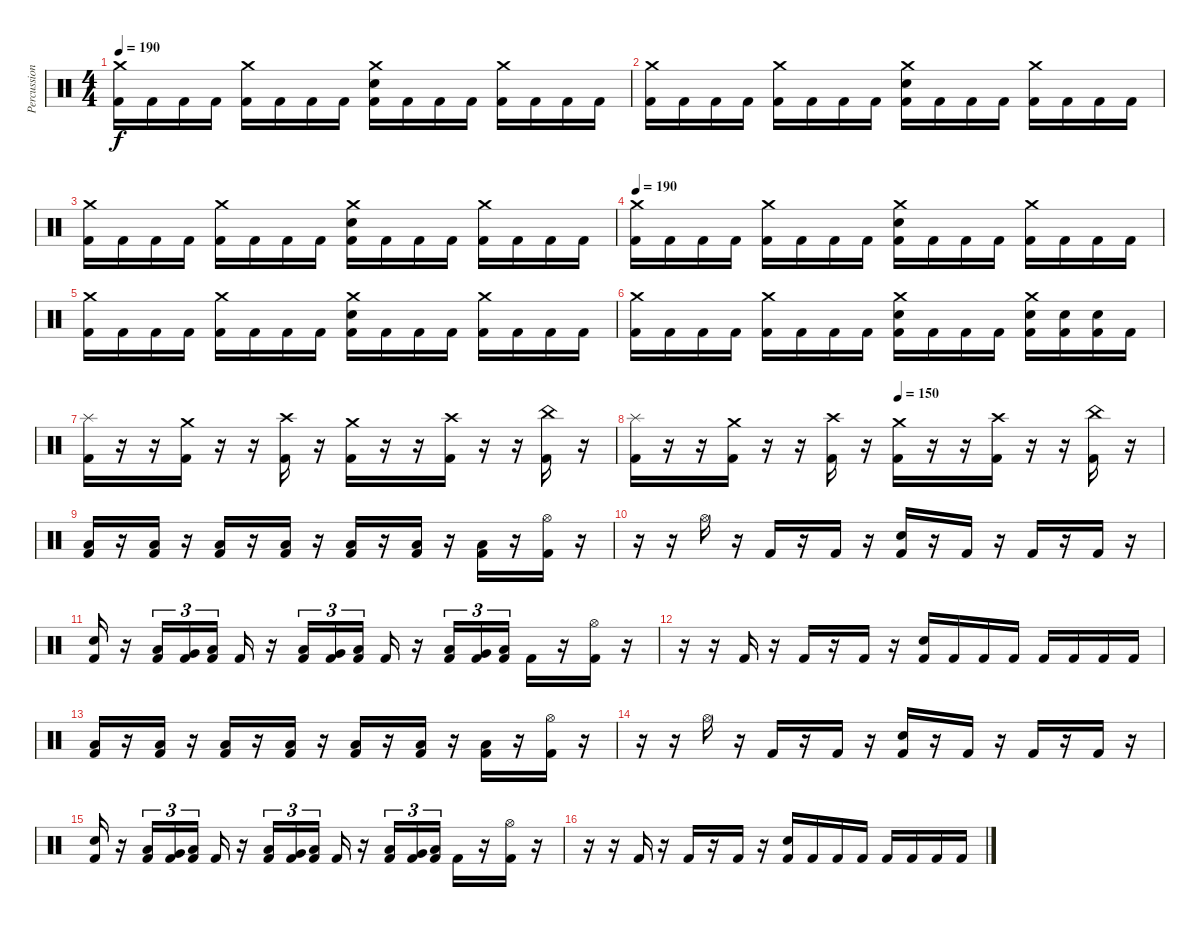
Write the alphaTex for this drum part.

\track ("Percussion" "Percussion") {instrument percussion}
\staff {score}
\articulation defaults
\ts (4 4)
\tempo 190
\clef neutral
\ks c
("Crash medium (hit)" "Kick (hit) 2").16{dy f} "Kick (hit) 2".16 "Kick (hit) 2".16 "Kick (hit) 2".16 ("Crash medium (hit)" "Kick (hit) 2").16 "Kick (hit) 2".16 "Kick (hit) 2".16 "Kick (hit) 2".16 ("Crash medium (hit)" "Electric Snare (hit)" "Kick (hit) 2").16 "Kick (hit) 2".16 "Kick (hit) 2".16 "Kick (hit) 2".16 ("Crash medium (hit)" "Kick (hit) 2").16 "Kick (hit) 2".16 "Kick (hit) 2".16 "Kick (hit) 2".16 |
("Crash medium (hit)" "Kick (hit) 2").16 "Kick (hit) 2".16 "Kick (hit) 2".16 "Kick (hit) 2".16 ("Crash medium (hit)" "Kick (hit) 2").16 "Kick (hit) 2".16 "Kick (hit) 2".16 "Kick (hit) 2".16 ("Crash medium (hit)" "Electric Snare (hit)" "Kick (hit) 2").16 "Kick (hit) 2".16 "Kick (hit) 2".16 "Kick (hit) 2".16 ("Crash medium (hit)" "Kick (hit) 2").16 "Kick (hit) 2".16 "Kick (hit) 2".16 "Kick (hit) 2".16 |
("Crash medium (hit)" "Kick (hit) 2").16 "Kick (hit) 2".16 "Kick (hit) 2".16 "Kick (hit) 2".16 ("Crash medium (hit)" "Kick (hit) 2").16 "Kick (hit) 2".16 "Kick (hit) 2".16 "Kick (hit) 2".16 ("Crash medium (hit)" "Electric Snare (hit)" "Kick (hit) 2").16 "Kick (hit) 2".16 "Kick (hit) 2".16 "Kick (hit) 2".16 ("Crash medium (hit)" "Kick (hit) 2").16 "Kick (hit) 2".16 "Kick (hit) 2".16 "Kick (hit) 2".16 |
\tempo 190
("Crash medium (hit)" "Kick (hit) 2").16 "Kick (hit) 2".16 "Kick (hit) 2".16 "Kick (hit) 2".16 ("Crash medium (hit)" "Kick (hit) 2").16 "Kick (hit) 2".16 "Kick (hit) 2".16 "Kick (hit) 2".16 ("Crash medium (hit)" "Electric Snare (hit)" "Kick (hit) 2").16 "Kick (hit) 2".16 "Kick (hit) 2".16 "Kick (hit) 2".16 ("Crash medium (hit)" "Kick (hit) 2").16 "Kick (hit) 2".16 "Kick (hit) 2".16 "Kick (hit) 2".16 |
("Crash medium (hit)" "Kick (hit) 2").16 "Kick (hit) 2".16 "Kick (hit) 2".16 "Kick (hit) 2".16 ("Crash medium (hit)" "Kick (hit) 2").16 "Kick (hit) 2".16 "Kick (hit) 2".16 "Kick (hit) 2".16 ("Crash medium (hit)" "Electric Snare (hit)" "Kick (hit) 2").16 "Kick (hit) 2".16 "Kick (hit) 2".16 "Kick (hit) 2".16 ("Crash medium (hit)" "Kick (hit) 2").16 "Kick (hit) 2".16 "Kick (hit) 2".16 "Kick (hit) 2".16 |
("Crash medium (hit)" "Kick (hit) 2").16 "Kick (hit) 2".16 "Kick (hit) 2".16 "Kick (hit) 2".16 ("Crash medium (hit)" "Kick (hit) 2").16 "Kick (hit) 2".16 "Kick (hit) 2".16 "Kick (hit) 2".16 ("Crash medium (hit)" "Electric Snare (hit)" "Kick (hit) 2").16 "Kick (hit) 2".16 "Kick (hit) 2".16 "Kick (hit) 2".16 ("Crash medium (hit)" "Electric Snare (hit)" "Kick (hit) 2").16 ("Electric Snare (hit)" "Kick (hit) 2").16 ("Electric Snare (hit)" "Kick (hit) 2").16 "Kick (hit) 2".16 |
("Splash (hit)" "Kick (hit) 2").16 r.16 r.16 ("Crash medium (hit)" "Kick (hit) 2").16 r.16 r.16 ("Crash high (hit)" "Kick (hit) 2").16 r.16 ("Crash medium (hit)" "Kick (hit) 2").16 r.16 r.16 ("Crash high (hit)" "Kick (hit) 2").16 r.16 r.16 ("China (hit)" "Kick (hit) 2").16 r.16 |
\tempo (150 0.5)
("Splash (hit)" "Kick (hit) 2").16 r.16 r.16 ("Crash medium (hit)" "Kick (hit) 2").16 r.16 r.16 ("Crash high (hit)" "Kick (hit) 2").16 r.16 ("Crash medium (hit)" "Kick (hit) 2").16 r.16 r.16 ("Crash high (hit)" "Kick (hit) 2").16 r.16 r.16 ("China (hit)" "Kick (hit) 2").16 r.16 |
("Low Floor Tom (hit)" "Kick (hit) 2").16 r.16 ("Low Floor Tom (hit)" "Kick (hit) 2").16 r.16 ("Low Floor Tom (hit)" "Kick (hit) 2").16 r.16 ("Low Floor Tom (hit)" "Kick (hit) 2").16 r.16 ("Low Floor Tom (hit)" "Kick (hit) 2").16 r.16 ("Low Floor Tom (hit)" "Kick (hit) 2").16 r.16 ("Low Floor Tom (hit)" "Kick (hit) 2").16 r.16 ("Hi-Hat (open)" "Kick (hit) 2").16 r.16 |
r.16 r.16 "Hi-Hat (open)".16 r.16 "Kick (hit) 2".16 r.16 "Kick (hit) 2".16 r.16 ("Electric Snare (hit)" "Kick (hit) 2").16 r.16 "Kick (hit) 2".16 r.16 "Kick (hit) 2".16 r.16 "Kick (hit) 2".16 r.16 |
("Electric Snare (hit)" "Kick (hit) 2").16 r.16 ("Low Tom (hit)" "Kick (hit) 2").16{tu (3 2)} ("Very Low Tom (hit)" "Kick (hit) 2").16{tu (3 2)} ("Low Floor Tom (hit)" "Kick (hit) 2").16{tu (3 2)} "Kick (hit) 2".16 r.16 ("Low Tom (hit)" "Kick (hit) 2").16{tu (3 2)} ("Very Low Tom (hit)" "Kick (hit) 2").16{tu (3 2)} ("Low Floor Tom (hit)" "Kick (hit) 2").16{tu (3 2)} "Kick (hit) 2".16 r.16 ("Low Tom (hit)" "Kick (hit) 2").16{tu (3 2)} ("Very Low Tom (hit)" "Kick (hit) 2").16{tu (3 2)} ("Low Floor Tom (hit)" "Kick (hit) 2").16{tu (3 2)} "Kick (hit) 2".16 r.16 ("Hi-Hat (open)" "Kick (hit) 2").16 r.16 |
r.16 r.16 "Kick (hit) 2".16 r.16 "Kick (hit) 2".16 r.16 "Kick (hit) 2".16 r.16 ("Electric Snare (hit)" "Kick (hit) 2").16 "Kick (hit) 2".16 "Kick (hit) 2".16 "Kick (hit) 2".16 "Kick (hit) 2".16 "Kick (hit) 2".16 "Kick (hit) 2".16 "Kick (hit) 2".16 |
("Low Floor Tom (hit)" "Kick (hit) 2").16 r.16 ("Low Floor Tom (hit)" "Kick (hit) 2").16 r.16 ("Low Floor Tom (hit)" "Kick (hit) 2").16 r.16 ("Low Floor Tom (hit)" "Kick (hit) 2").16 r.16 ("Low Floor Tom (hit)" "Kick (hit) 2").16 r.16 ("Low Floor Tom (hit)" "Kick (hit) 2").16 r.16 ("Low Floor Tom (hit)" "Kick (hit) 2").16 r.16 ("Hi-Hat (open)" "Kick (hit) 2").16 r.16 |
r.16 r.16 "Hi-Hat (open)".16 r.16 "Kick (hit) 2".16 r.16 "Kick (hit) 2".16 r.16 ("Electric Snare (hit)" "Kick (hit) 2").16 r.16 "Kick (hit) 2".16 r.16 "Kick (hit) 2".16 r.16 "Kick (hit) 2".16 r.16 |
("Electric Snare (hit)" "Kick (hit) 2").16 r.16 ("Low Tom (hit)" "Kick (hit) 2").16{tu (3 2)} ("Very Low Tom (hit)" "Kick (hit) 2").16{tu (3 2)} ("Low Floor Tom (hit)" "Kick (hit) 2").16{tu (3 2)} "Kick (hit) 2".16 r.16 ("Low Tom (hit)" "Kick (hit) 2").16{tu (3 2)} ("Very Low Tom (hit)" "Kick (hit) 2").16{tu (3 2)} ("Low Floor Tom (hit)" "Kick (hit) 2").16{tu (3 2)} "Kick (hit) 2".16 r.16 ("Low Tom (hit)" "Kick (hit) 2").16{tu (3 2)} ("Very Low Tom (hit)" "Kick (hit) 2").16{tu (3 2)} ("Low Floor Tom (hit)" "Kick (hit) 2").16{tu (3 2)} "Kick (hit) 2".16 r.16 ("Hi-Hat (open)" "Kick (hit) 2").16 r.16 |
r.16 r.16 "Kick (hit) 2".16 r.16 "Kick (hit) 2".16 r.16 "Kick (hit) 2".16 r.16 ("Electric Snare (hit)" "Kick (hit) 2").16 "Kick (hit) 2".16 "Kick (hit) 2".16 "Kick (hit) 2".16 "Kick (hit) 2".16 "Kick (hit) 2".16 "Kick (hit) 2".16 "Kick (hit) 2".16
